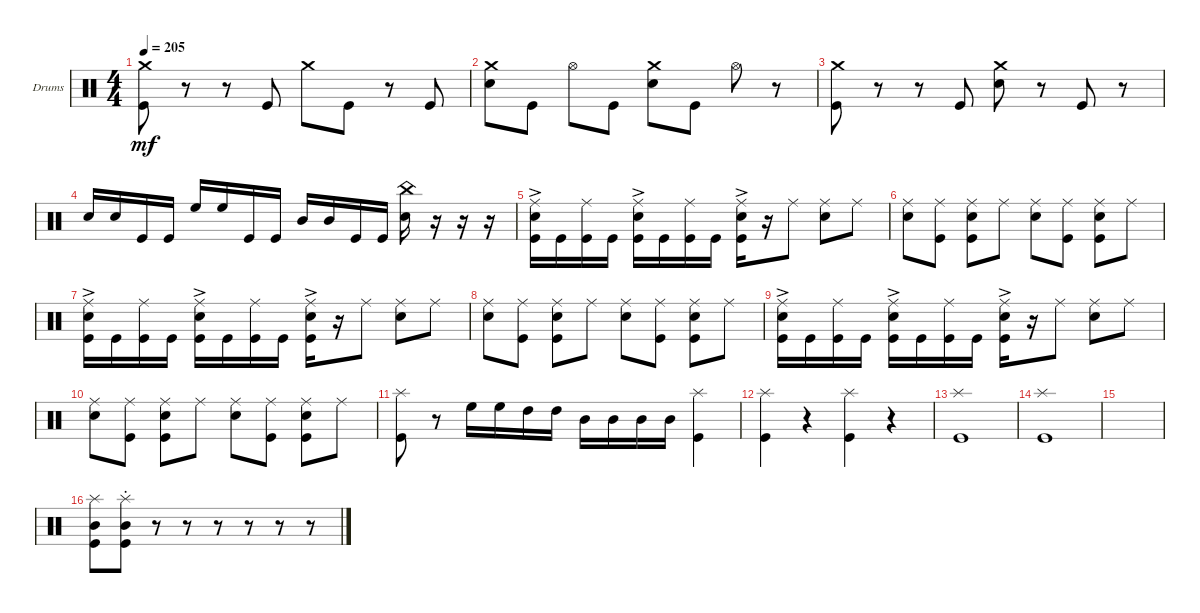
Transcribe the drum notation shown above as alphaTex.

\defaultSystemsLayout 4
\bracketExtendMode groupsimilarinstruments
\firstSystemTrackNameOrientation horizontal
\otherSystemsTrackNameOrientation horizontal
\track ("Drumkit" "Drums") {instrument percussion}
\staff {score}
\articulation defaults
\ts (4 4)
\tempo 205
\clef neutral
\ks c
("Kick (hit)" "Crash medium (hit)").8{dy mf} r.8 r.8 "Kick (hit)".8 "Crash medium (hit)".8 "Kick (hit)".8 r.8 "Kick (hit)".8 |
("Snare (hit) 2" "Crash medium (hit)").8 "Kick (hit)".8 "Hi-Hat (open)".8 "Kick (hit)".8 ("Snare (hit) 2" "Crash medium (hit)").8 "Kick (hit)".8 "Hi-Hat (open)".8 r.8 |
("Kick (hit)" "Crash medium (hit)").8 r.8 r.8 "Kick (hit)".8 ("Snare (hit) 2" "Crash medium (hit)").8 r.8 "Kick (hit)".8 r.8 |
"Snare (hit) 2".16 "Snare (hit) 2".16 "Kick (hit)".16 "Kick (hit)".16 "High Floor Tom (hit)".16 "High Floor Tom (hit)".16 "Kick (hit)".16 "Kick (hit)".16 "Mid Tom (hit)".16 "Mid Tom (hit)".16 "Kick (hit)".16 "Kick (hit)".16 ("Snare (hit) 2" "China (hit)").16 r.16 r.16 r.16 |
("Snare (hit) 2"{ac} "Kick (hit)" "Ride (middle)").16 "Kick (hit)".16 ("Kick (hit)" "Ride (middle)").16 "Kick (hit)".16 ("Snare (hit) 2"{ac} "Kick (hit)" "Ride (middle)").16 "Kick (hit)".16 ("Kick (hit)" "Ride (middle)").16 "Kick (hit)".16 ("Snare (hit) 2"{ac} "Kick (hit)" "Ride (middle)").16 r.16 "Ride (middle)".8 ("Ride (middle)" "Snare (hit) 2").8 "Ride (middle)".8 |
("Ride (middle)" "Snare (hit) 2").8 ("Ride (middle)" "Kick (hit)").8 ("Ride (middle)" "Snare (hit) 2" "Kick (hit)").8 "Ride (middle)".8 ("Ride (middle)" "Snare (hit) 2").8 ("Ride (middle)" "Kick (hit)").8 ("Ride (middle)" "Snare (hit) 2" "Kick (hit)").8 "Ride (middle)".8 |
("Snare (hit) 2"{ac} "Kick (hit)" "Ride (middle)").16 "Kick (hit)".16 ("Kick (hit)" "Ride (middle)").16 "Kick (hit)".16 ("Snare (hit) 2"{ac} "Kick (hit)" "Ride (middle)").16 "Kick (hit)".16 ("Kick (hit)" "Ride (middle)").16 "Kick (hit)".16 ("Snare (hit) 2"{ac} "Kick (hit)" "Ride (middle)").16 r.16 "Ride (middle)".8 ("Ride (middle)" "Snare (hit) 2").8 "Ride (middle)".8 |
("Ride (middle)" "Snare (hit) 2").8 ("Ride (middle)" "Kick (hit)").8 ("Ride (middle)" "Snare (hit) 2" "Kick (hit)").8 "Ride (middle)".8 ("Ride (middle)" "Snare (hit) 2").8 ("Ride (middle)" "Kick (hit)").8 ("Ride (middle)" "Snare (hit) 2" "Kick (hit)").8 "Ride (middle)".8 |
("Snare (hit) 2"{ac} "Kick (hit)" "Ride (middle)").16 "Kick (hit)".16 ("Kick (hit)" "Ride (middle)").16 "Kick (hit)".16 ("Snare (hit) 2"{ac} "Kick (hit)" "Ride (middle)").16 "Kick (hit)".16 ("Kick (hit)" "Ride (middle)").16 "Kick (hit)".16 ("Snare (hit) 2"{ac} "Kick (hit)" "Ride (middle)").16 r.16 "Ride (middle)".8 ("Ride (middle)" "Snare (hit) 2").8 "Ride (middle)".8 |
("Ride (middle)" "Snare (hit) 2").8 ("Ride (middle)" "Kick (hit)").8 ("Ride (middle)" "Snare (hit) 2" "Kick (hit)").8 "Ride (middle)".8 ("Ride (middle)" "Snare (hit) 2").8 ("Ride (middle)" "Kick (hit)").8 ("Ride (middle)" "Snare (hit) 2" "Kick (hit)").8 "Ride (middle)".8 |
("Kick (hit)" "Splash (hit)").8 r.8 "High Floor Tom (hit)".16 "High Floor Tom (hit)".16 "High Tom (hit)".16 "High Tom (hit)".16 "Mid Tom (hit)".16 "Mid Tom (hit)".16 "Mid Tom (hit)".16 "Mid Tom (hit)".16 ("Kick (hit)" "Splash (hit)").4 |
("Kick (hit)" "Splash (hit)").4 r.4 ("Kick (hit)" "Splash (hit)").4 r.4 |
("Kick (hit)" "Splash (hit)").1 |
("Kick (hit)" "Splash (hit)").1 |
|
("Kick (hit)" "Mid Tom (hit)" "Splash (hit)").8 ("Kick (hit)" "Mid Tom (hit)" "Splash (hit)"{st}).8 r.8 r.8 r.8 r.8 r.8 r.8
